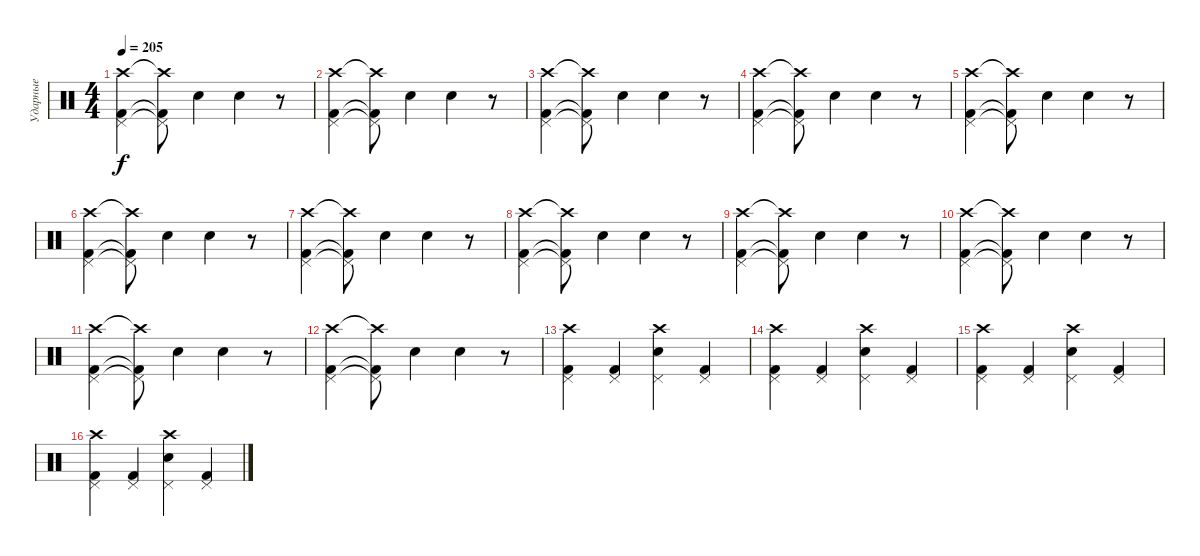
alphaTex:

\track ("Ударные" "Ударные") {instrument percussion}
\staff {score}
\articulation defaults
\ts (4 4)
\tempo 205
\clef neutral
\ks c
("Crash high (hit)" "Pedal Hi-Hat (hit)" "Kick (hit) 2").4{dy f} ("Crash high (hit)"{t} "Pedal Hi-Hat (hit)"{t} "Kick (hit) 2"{t}).8 "Snare (hit) 2".4 "Snare (hit) 2".4 r.8 |
("Crash high (hit)" "Pedal Hi-Hat (hit)" "Kick (hit) 2").4 ("Crash high (hit)"{t} "Pedal Hi-Hat (hit)"{t} "Kick (hit) 2"{t}).8 "Snare (hit) 2".4 "Snare (hit) 2".4 r.8 |
("Crash high (hit)" "Pedal Hi-Hat (hit)" "Kick (hit) 2").4 ("Crash high (hit)"{t} "Pedal Hi-Hat (hit)"{t} "Kick (hit) 2"{t}).8 "Snare (hit) 2".4 "Snare (hit) 2".4 r.8 |
("Crash high (hit)" "Pedal Hi-Hat (hit)" "Kick (hit) 2").4 ("Crash high (hit)"{t} "Pedal Hi-Hat (hit)"{t} "Kick (hit) 2"{t}).8 "Snare (hit) 2".4 "Snare (hit) 2".4 r.8 |
("Crash high (hit)" "Pedal Hi-Hat (hit)" "Kick (hit) 2").4 ("Crash high (hit)"{t} "Pedal Hi-Hat (hit)"{t} "Kick (hit) 2"{t}).8 "Snare (hit) 2".4 "Snare (hit) 2".4 r.8 |
("Crash high (hit)" "Pedal Hi-Hat (hit)" "Kick (hit) 2").4 ("Crash high (hit)"{t} "Pedal Hi-Hat (hit)"{t} "Kick (hit) 2"{t}).8 "Snare (hit) 2".4 "Snare (hit) 2".4 r.8 |
("Crash high (hit)" "Pedal Hi-Hat (hit)" "Kick (hit) 2").4 ("Crash high (hit)"{t} "Pedal Hi-Hat (hit)"{t} "Kick (hit) 2"{t}).8 "Snare (hit) 2".4 "Snare (hit) 2".4 r.8 |
("Crash high (hit)" "Pedal Hi-Hat (hit)" "Kick (hit) 2").4 ("Crash high (hit)"{t} "Pedal Hi-Hat (hit)"{t} "Kick (hit) 2"{t}).8 "Snare (hit) 2".4 "Snare (hit) 2".4 r.8 |
("Crash high (hit)" "Pedal Hi-Hat (hit)" "Kick (hit) 2").4 ("Crash high (hit)"{t} "Pedal Hi-Hat (hit)"{t} "Kick (hit) 2"{t}).8 "Snare (hit) 2".4 "Snare (hit) 2".4 r.8 |
("Crash high (hit)" "Pedal Hi-Hat (hit)" "Kick (hit) 2").4 ("Crash high (hit)"{t} "Pedal Hi-Hat (hit)"{t} "Kick (hit) 2"{t}).8 "Snare (hit) 2".4 "Snare (hit) 2".4 r.8 |
("Crash high (hit)" "Pedal Hi-Hat (hit)" "Kick (hit) 2").4 ("Crash high (hit)"{t} "Pedal Hi-Hat (hit)"{t} "Kick (hit) 2"{t}).8 "Snare (hit) 2".4 "Snare (hit) 2".4 r.8 |
("Crash high (hit)" "Pedal Hi-Hat (hit)" "Kick (hit) 2").4 ("Crash high (hit)"{t} "Pedal Hi-Hat (hit)"{t} "Kick (hit) 2"{t}).8 "Snare (hit) 2".4 "Snare (hit) 2".4 r.8 |
("Crash high (hit)" "Pedal Hi-Hat (hit)" "Kick (hit) 2").4 ("Pedal Hi-Hat (hit)" "Kick (hit) 2").4 ("Crash high (hit)" "Pedal Hi-Hat (hit)" "Snare (hit) 2").4 ("Pedal Hi-Hat (hit)" "Kick (hit) 2").4 |
("Crash high (hit)" "Pedal Hi-Hat (hit)" "Kick (hit) 2").4 ("Pedal Hi-Hat (hit)" "Kick (hit) 2").4 ("Crash high (hit)" "Pedal Hi-Hat (hit)" "Snare (hit) 2").4 ("Pedal Hi-Hat (hit)" "Kick (hit) 2").4 |
("Crash high (hit)" "Pedal Hi-Hat (hit)" "Kick (hit) 2").4 ("Pedal Hi-Hat (hit)" "Kick (hit) 2").4 ("Crash high (hit)" "Pedal Hi-Hat (hit)" "Snare (hit) 2").4 ("Pedal Hi-Hat (hit)" "Kick (hit) 2").4 |
("Crash high (hit)" "Pedal Hi-Hat (hit)" "Kick (hit) 2").4 ("Pedal Hi-Hat (hit)" "Kick (hit) 2").4 ("Crash high (hit)" "Pedal Hi-Hat (hit)" "Snare (hit) 2").4 ("Pedal Hi-Hat (hit)" "Kick (hit) 2").4
